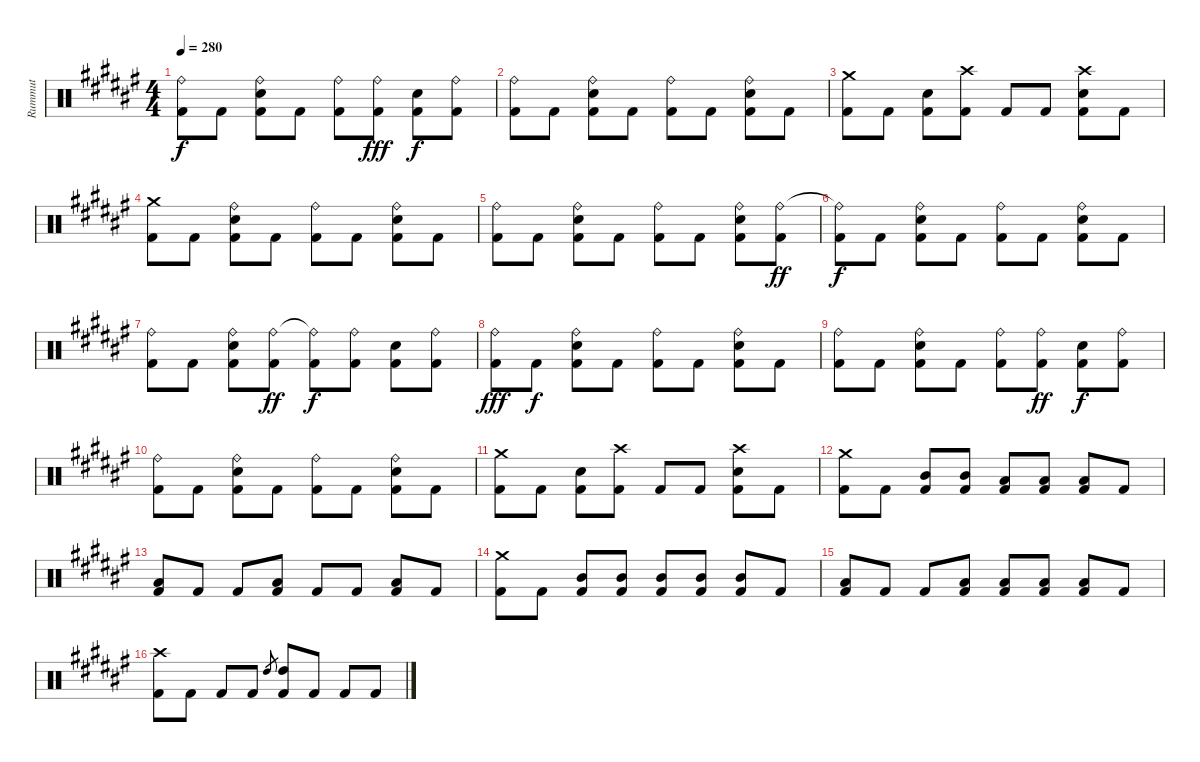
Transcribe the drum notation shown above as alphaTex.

\track ("Rummut" "Rummut") {instrument percussion}
\staff {score}
\articulation defaults
\ts (4 4)
\tempo 280
\clef neutral
\ks f#
("Ride (bell)" "Kick (hit) 2").8{dy f} "Kick (hit) 2".8 ("Ride (bell)" "Snare (hit) 2" "Kick (hit) 2").8 "Kick (hit) 2".8 ("Ride (bell)" "Kick (hit) 2").8 ("Ride (bell)" "Kick (hit) 2").8{dy fff} ("Snare (hit) 2" "Kick (hit) 2").8{dy f} ("Ride (bell)" "Kick (hit) 2").8 |
("Ride (bell)" "Kick (hit) 2").8 "Kick (hit) 2".8 ("Ride (bell)" "Snare (hit) 2" "Kick (hit) 2").8 "Kick (hit) 2".8 ("Ride (bell)" "Kick (hit) 2").8 "Kick (hit) 2".8 ("Ride (bell)" "Snare (hit) 2" "Kick (hit) 2").8 "Kick (hit) 2".8 |
("Crash medium (hit)" "Kick (hit) 2").8 "Kick (hit) 2".8 ("Snare (hit) 2" "Kick (hit) 2").8 ("Crash high (hit)" "Kick (hit) 2").8 "Kick (hit) 2".8 "Kick (hit) 2".8 ("Crash high (hit)" "Snare (hit) 2" "Kick (hit) 2").8 "Kick (hit) 2".8 |
("Crash medium (hit)" "Kick (hit) 2").8 "Kick (hit) 2".8 ("Ride (bell)" "Snare (hit) 2" "Kick (hit) 2").8 "Kick (hit) 2".8 ("Ride (bell)" "Kick (hit) 2").8 "Kick (hit) 2".8 ("Ride (bell)" "Snare (hit) 2" "Kick (hit) 2").8 "Kick (hit) 2".8 |
("Ride (bell)" "Kick (hit) 2").8 "Kick (hit) 2".8 ("Ride (bell)" "Snare (hit) 2" "Kick (hit) 2").8 "Kick (hit) 2".8 ("Ride (bell)" "Kick (hit) 2").8 "Kick (hit) 2".8 ("Ride (bell)" "Snare (hit) 2" "Kick (hit) 2").8 ("Ride (bell)" "Kick (hit) 2").8{dy ff} |
("Ride (bell)"{t} "Kick (hit) 2").8{dy f} "Kick (hit) 2".8 ("Ride (bell)" "Snare (hit) 2" "Kick (hit) 2").8 "Kick (hit) 2".8 ("Ride (bell)" "Kick (hit) 2").8 "Kick (hit) 2".8 ("Ride (bell)" "Snare (hit) 2" "Kick (hit) 2").8 "Kick (hit) 2".8 |
("Ride (bell)" "Kick (hit) 2").8 "Kick (hit) 2".8 ("Ride (bell)" "Snare (hit) 2" "Kick (hit) 2").8 ("Ride (bell)" "Kick (hit) 2").8{dy ff} ("Ride (bell)"{t} "Kick (hit) 2").8{dy f} ("Ride (bell)" "Kick (hit) 2").8 ("Snare (hit) 2" "Kick (hit) 2").8 ("Ride (bell)" "Kick (hit) 2").8 |
("Ride (bell)" "Kick (hit) 2").8{dy fff} "Kick (hit) 2".8{dy f} ("Ride (bell)" "Snare (hit) 2" "Kick (hit) 2").8 "Kick (hit) 2".8 ("Ride (bell)" "Kick (hit) 2").8 "Kick (hit) 2".8 ("Ride (bell)" "Snare (hit) 2" "Kick (hit) 2").8 "Kick (hit) 2".8 |
("Ride (bell)" "Kick (hit) 2").8 "Kick (hit) 2".8 ("Ride (bell)" "Snare (hit) 2" "Kick (hit) 2").8 "Kick (hit) 2".8 ("Ride (bell)" "Kick (hit) 2").8 ("Ride (bell)" "Kick (hit) 2").8{dy ff} ("Snare (hit) 2" "Kick (hit) 2").8{dy f} ("Ride (bell)" "Kick (hit) 2").8 |
("Ride (bell)" "Kick (hit) 2").8 "Kick (hit) 2".8 ("Ride (bell)" "Snare (hit) 2" "Kick (hit) 2").8 "Kick (hit) 2".8 ("Ride (bell)" "Kick (hit) 2").8 "Kick (hit) 2".8 ("Ride (bell)" "Snare (hit) 2" "Kick (hit) 2").8 "Kick (hit) 2".8 |
("Crash medium (hit)" "Kick (hit) 2").8 "Kick (hit) 2".8 ("Snare (hit) 2" "Kick (hit) 2").8 ("Crash high (hit)" "Kick (hit) 2").8 "Kick (hit) 2".8 "Kick (hit) 2".8 ("Crash high (hit)" "Snare (hit) 2" "Kick (hit) 2").8 "Kick (hit) 2".8 |
("Crash medium (hit)" "Kick (hit) 2").8 "Kick (hit) 2".8 ("Mid Tom (hit)" "Kick (hit) 2").8 ("Mid Tom (hit)" "Kick (hit) 2").8 ("Low Tom (hit)" "Kick (hit) 2").8 ("Low Tom (hit)" "Kick (hit) 2").8 ("Low Tom (hit)" "Kick (hit) 2").8 "Kick (hit) 2".8 |
("Low Tom (hit)" "Kick (hit) 2").8 "Kick (hit) 2".8 "Kick (hit) 2".8 ("Low Tom (hit)" "Kick (hit) 2").8 "Kick (hit) 2".8 "Kick (hit) 2".8 ("Low Tom (hit)" "Kick (hit) 2").8 "Kick (hit) 2".8 |
("Crash medium (hit)" "Kick (hit) 2").8 "Kick (hit) 2".8 ("Mid Tom (hit)" "Kick (hit) 2").8 ("Mid Tom (hit)" "Kick (hit) 2").8 ("Mid Tom (hit)" "Kick (hit) 2").8 ("Mid Tom (hit)" "Kick (hit) 2").8 ("Mid Tom (hit)" "Kick (hit) 2").8 "Kick (hit) 2".8 |
("Low Tom (hit)" "Kick (hit) 2").8 "Kick (hit) 2".8 "Kick (hit) 2".8 ("Low Tom (hit)" "Kick (hit) 2").8 ("Low Tom (hit)" "Kick (hit) 2").8 ("Low Tom (hit)" "Kick (hit) 2").8 ("Low Tom (hit)" "Kick (hit) 2").8 "Kick (hit) 2".8 |
("Crash high (hit)" "Kick (hit) 2").8 "Kick (hit) 2".8 "Kick (hit) 2".8 "Kick (hit) 2".8 "High Tom (hit)".8{gr} ("High Tom (hit)" "Kick (hit) 2").8 "Kick (hit) 2".8 "Kick (hit) 2".8 "Kick (hit) 2".8
